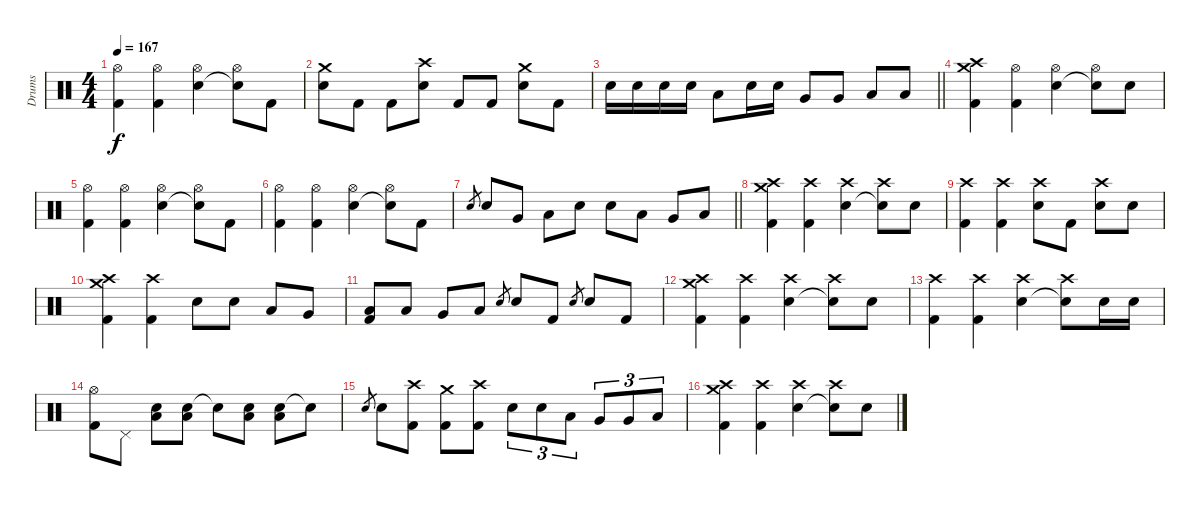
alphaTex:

\track ("Drums" "Drums") {instrument percussion}
\staff {score}
\articulation defaults
\ts (4 4)
\tempo 167
\clef neutral
\ks c
("Kick (hit) 2" "Hi-Hat (open)").4{dy f} ("Kick (hit) 2" "Hi-Hat (open)").4 ("Electric Snare (hit)" "Hi-Hat (open)").4 ("Snare (hit)"{t} "Hi-Hat (open)").8 "Kick (hit) 2".8 |
("Electric Snare (hit)" "Crash medium (hit)").8 "Kick (hit) 2".8 "Kick (hit) 2".8 ("Electric Snare (hit)" "Crash high (hit)").8 "Kick (hit) 2".8 "Kick (hit) 2".8 ("Electric Snare (hit)" "Crash medium (hit)").8 "Kick (hit) 2".8 |
\barLineRight lightlight "Electric Snare (hit)".16 "Electric Snare (hit)".16 "Electric Snare (hit)".16 "Electric Snare (hit)".16 "Low Tom (hit)".8 "Electric Snare (hit)".16 "Electric Snare (hit)".16 "Very Low Tom (hit)".8 "Very Low Tom (hit)".8 "Low Floor Tom (hit)".8 "Low Floor Tom (hit)".8
|
("Kick (hit) 2" "Crash high (hit)" "Crash medium (hit)").4 ("Kick (hit) 2" "Hi-Hat (open)").4 ("Electric Snare (hit)" "Hi-Hat (open)").4 ("Snare (hit)"{t} "Hi-Hat (open)").8 "Electric Snare (hit)".8 |
("Kick (hit) 2" "Hi-Hat (open)").4 ("Kick (hit) 2" "Hi-Hat (open)").4 ("Electric Snare (hit)" "Hi-Hat (open)").4 ("Snare (hit)"{t} "Hi-Hat (open)").8 "Kick (hit) 2".8 |
("Kick (hit) 2" "Hi-Hat (open)").4 ("Kick (hit) 2" "Hi-Hat (open)").4 ("Electric Snare (hit)" "Hi-Hat (open)").4 ("Snare (hit)"{t} "Hi-Hat (open)").8 "Kick (hit) 2".8 |
\barLineRight lightlight "Electric Snare (hit)".8{gr} "Electric Snare (hit)".8 "Very Low Tom (hit)".8 "Low Floor Tom (hit)".8 "Electric Snare (hit)".8 "Electric Snare (hit)".8 "Low Tom (hit)".8 "Very Low Tom (hit)".8 "Low Floor Tom (hit)".8
|
("Kick (hit) 2" "Crash high (hit)" "Crash medium (hit)").4 ("Kick (hit) 2" "Crash high (hit)").4 ("Electric Snare (hit)" "Crash high (hit)").4 ("Snare (hit)"{t} "Crash high (hit)").8 "Electric Snare (hit)".8 |
("Kick (hit) 2" "Crash high (hit)").4 ("Kick (hit) 2" "Crash high (hit)").4 ("Electric Snare (hit)" "Crash high (hit)").8 "Kick (hit) 2".8 ("Electric Snare (hit)" "Crash high (hit)").8 "Electric Snare (hit)".8 |
("Kick (hit) 2" "Crash high (hit)" "Crash medium (hit)").4 ("Kick (hit) 2" "Crash high (hit)").4 "Electric Snare (hit)".8 "Electric Snare (hit)".8 "Low Tom (hit)".8 "Very Low Tom (hit)".8 |
("Low Floor Tom (hit)" "Kick (hit) 2").8 "Low Floor Tom (hit)".8 "Very Low Tom (hit)".8 "Low Floor Tom (hit)".8 "Electric Snare (hit)".8{gr} "Electric Snare (hit)".8 "Kick (hit) 2".8 "Electric Snare (hit)".8{gr} "Electric Snare (hit)".8 "Kick (hit) 2".8 |
("Kick (hit) 2" "Crash high (hit)" "Crash medium (hit)").4 ("Kick (hit) 2" "Crash high (hit)").4 ("Electric Snare (hit)" "Crash high (hit)").4 ("Snare (hit)"{t} "Crash high (hit)").8 "Electric Snare (hit)".8 |
("Kick (hit) 2" "Crash high (hit)").4 ("Kick (hit) 2" "Crash high (hit)").4 ("Electric Snare (hit)" "Crash high (hit)").4 ("Snare (hit)"{t} "Crash high (hit)").8 "Electric Snare (hit)".16 "Electric Snare (hit)".16 |
("Kick (hit) 2" "Hi-Hat (open)").8 "Pedal Hi-Hat (hit)".8 ("Electric Snare (hit)" "Low Floor Tom (hit)").8 ("Electric Snare (hit)" "Low Floor Tom (hit)").8 "Snare (hit)"{t}.8 ("Electric Snare (hit)" "Low Floor Tom (hit)").8 ("Electric Snare (hit)" "Low Floor Tom (hit)").8 "Snare (hit)"{t}.8 |
"Electric Snare (hit)".8{gr} "Electric Snare (hit)".8 ("Kick (hit) 2" "Crash high (hit)").8 ("Kick (hit) 2" "Crash medium (hit)").8 ("Kick (hit) 2" "Crash high (hit)").8 "Electric Snare (hit)".8{tu (3 2)} "Electric Snare (hit)".8{tu (3 2)} "Low Tom (hit)".8{tu (3 2)} "Very Low Tom (hit)".8{tu (3 2)} "Very Low Tom (hit)".8{tu (3 2)} "Low Floor Tom (hit)".8{tu (3 2)} |
("Kick (hit) 2" "Crash high (hit)" "Crash medium (hit)").4 ("Kick (hit) 2" "Crash high (hit)").4 ("Electric Snare (hit)" "Crash high (hit)").4 ("Snare (hit)"{t} "Crash high (hit)").8 "Electric Snare (hit)".8
